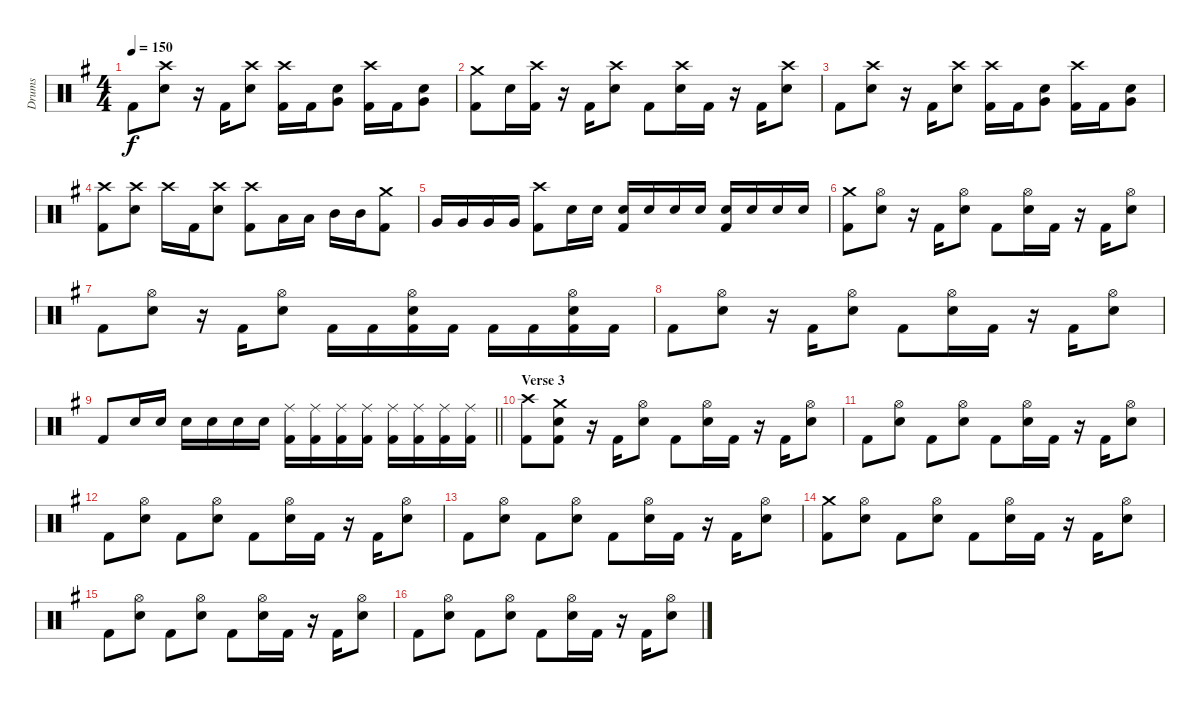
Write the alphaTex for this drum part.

\track ("Drums" "Drums") {instrument percussion}
\staff {score}
\articulation defaults
\ts (4 4)
\tempo 150
\clef neutral
\ks eminor "Kick (hit) 2".8{dy f}
("Crash high (hit)" "Electric Snare (hit)").8 r.16 "Kick (hit) 2".16 ("Crash high (hit)" "Electric Snare (hit)").8 ("Crash high (hit)" "Kick (hit) 2").16 "Kick (hit) 2".16 ("Electric Snare (hit)" "Very Low Tom (hit)").8 ("Crash high (hit)" "Kick (hit) 2").16 "Kick (hit) 2".16 ("Electric Snare (hit)" "Very Low Tom (hit)").8 |
("Crash medium (hit)" "Kick (hit) 2").8 "Electric Snare (hit)".16 ("Crash high (hit)" "Kick (hit) 2").16 r.16 "Kick (hit) 2".16 ("Crash high (hit)" "Electric Snare (hit)").8 "Kick (hit) 2".8 ("Crash high (hit)" "Electric Snare (hit)").16 "Kick (hit) 2".16 r.16 "Kick (hit) 2".16 ("Crash high (hit)" "Electric Snare (hit)").8 |
"Kick (hit) 2".8 ("Crash high (hit)" "Electric Snare (hit)").8 r.16 "Kick (hit) 2".16 ("Crash high (hit)" "Electric Snare (hit)").8 ("Crash high (hit)" "Kick (hit) 2").16 "Kick (hit) 2".16 ("Electric Snare (hit)" "Very Low Tom (hit)").8 ("Crash high (hit)" "Kick (hit) 2").16 "Kick (hit) 2".16 ("Electric Snare (hit)" "Very Low Tom (hit)").8 |
("Crash high (hit)" "Kick (hit) 2").8 ("Crash high (hit)" "Electric Snare (hit)").8 "Crash high (hit)".16 "Kick (hit) 2".16 ("Crash high (hit)" "Electric Snare (hit)").8 ("Crash high (hit)" "Kick (hit) 2").8 "Low Tom (hit)".16 "Low Tom (hit)".16 "Mid Tom (hit)".16 "Mid Tom (hit)".16 ("Crash medium (hit)" "Kick (hit) 2").8 |
"Very Low Tom (hit)".16 "Very Low Tom (hit)".16 "Very Low Tom (hit)".16 "Very Low Tom (hit)".16 ("Crash high (hit)" "Kick (hit) 2").8 "Electric Snare (hit)".16 "Electric Snare (hit)".16 ("Electric Snare (hit)" "Kick (hit) 2").16 "Electric Snare (hit)".16 "Electric Snare (hit)".16 "Electric Snare (hit)".16 ("Electric Snare (hit)" "Kick (hit) 2").16 "Electric Snare (hit)".16 "Electric Snare (hit)".16 "Electric Snare (hit)".16 |
("Crash medium (hit)" "Kick (hit) 2").8 ("Hi-Hat (open)" "Electric Snare (hit)").8 r.16 "Kick (hit) 2".16 ("Hi-Hat (open)" "Electric Snare (hit)").8 "Kick (hit) 2".8 ("Hi-Hat (open)" "Electric Snare (hit)").16 "Kick (hit) 2".16 r.16 "Kick (hit) 2".16 ("Hi-Hat (open)" "Electric Snare (hit)").8 |
"Kick (hit) 2".8 ("Hi-Hat (open)" "Electric Snare (hit)").8 r.16 "Kick (hit) 2".16 ("Hi-Hat (open)" "Electric Snare (hit)").8 "Kick (hit) 2".16 "Kick (hit) 2".16 ("Hi-Hat (open)" "Electric Snare (hit)" "Kick (hit) 2").16 "Kick (hit) 2".16 "Kick (hit) 2".16 "Kick (hit) 2".16 ("Hi-Hat (open)" "Electric Snare (hit)" "Kick (hit) 2").16 "Kick (hit) 2".16 |
"Kick (hit) 2".8 ("Hi-Hat (open)" "Electric Snare (hit)").8 r.16 "Kick (hit) 2".16 ("Hi-Hat (open)" "Electric Snare (hit)").8 "Kick (hit) 2".8 ("Hi-Hat (open)" "Electric Snare (hit)").16 "Kick (hit) 2".16 r.16 "Kick (hit) 2".16 ("Hi-Hat (open)" "Electric Snare (hit)").8 |
\barLineRight lightlight "Kick (hit) 2".8 "Electric Snare (hit)".16 "Electric Snare (hit)".16 "Electric Snare (hit)".16 "Electric Snare (hit)".16 "Electric Snare (hit)".16 "Electric Snare (hit)".16
("Ride (middle)" "Kick (hit) 2").16 ("Ride (middle)" "Kick (hit) 2").16 ("Ride (middle)" "Kick (hit) 2").16 ("Ride (middle)" "Kick (hit) 2").16 ("Ride (middle)" "Kick (hit) 2").16 ("Ride (middle)" "Kick (hit) 2").16 ("Ride (middle)" "Kick (hit) 2").16 ("Ride (middle)" "Kick (hit) 2").16 |
\section ("" "Verse 3")
("Crash high (hit)" "Kick (hit) 2").8 ("Crash medium (hit)" "Electric Snare (hit)" "Kick (hit) 2").8 r.16 "Kick (hit) 2".16 ("Hi-Hat (open)" "Electric Snare (hit)").8 "Kick (hit) 2".8 ("Hi-Hat (open)" "Electric Snare (hit)").16 "Kick (hit) 2".16 r.16 "Kick (hit) 2".16 ("Hi-Hat (open)" "Electric Snare (hit)").8 |
"Kick (hit) 2".8 ("Hi-Hat (open)" "Electric Snare (hit)").8 "Kick (hit) 2".8 ("Hi-Hat (open)" "Electric Snare (hit)").8 "Kick (hit) 2".8 ("Hi-Hat (open)" "Electric Snare (hit)").16 "Kick (hit) 2".16 r.16 "Kick (hit) 2".16 ("Hi-Hat (open)" "Electric Snare (hit)").8 |
"Kick (hit) 2".8 ("Hi-Hat (open)" "Electric Snare (hit)").8 "Kick (hit) 2".8 ("Hi-Hat (open)" "Electric Snare (hit)").8 "Kick (hit) 2".8 ("Hi-Hat (open)" "Electric Snare (hit)").16 "Kick (hit) 2".16 r.16 "Kick (hit) 2".16 ("Hi-Hat (open)" "Electric Snare (hit)").8 |
"Kick (hit) 2".8 ("Hi-Hat (open)" "Electric Snare (hit)").8 "Kick (hit) 2".8 ("Hi-Hat (open)" "Electric Snare (hit)").8 "Kick (hit) 2".8 ("Hi-Hat (open)" "Electric Snare (hit)").16 "Kick (hit) 2".16 r.16 "Kick (hit) 2".16 ("Hi-Hat (open)" "Electric Snare (hit)").8 |
("Crash medium (hit)" "Kick (hit) 2").8 ("Hi-Hat (open)" "Electric Snare (hit)").8 "Kick (hit) 2".8 ("Hi-Hat (open)" "Electric Snare (hit)").8 "Kick (hit) 2".8 ("Hi-Hat (open)" "Electric Snare (hit)").16 "Kick (hit) 2".16 r.16 "Kick (hit) 2".16 ("Hi-Hat (open)" "Electric Snare (hit)").8 |
"Kick (hit) 2".8 ("Hi-Hat (open)" "Electric Snare (hit)").8 "Kick (hit) 2".8 ("Hi-Hat (open)" "Electric Snare (hit)").8 "Kick (hit) 2".8 ("Hi-Hat (open)" "Electric Snare (hit)").16 "Kick (hit) 2".16 r.16 "Kick (hit) 2".16 ("Hi-Hat (open)" "Electric Snare (hit)").8 |
"Kick (hit) 2".8 ("Hi-Hat (open)" "Electric Snare (hit)").8 "Kick (hit) 2".8 ("Hi-Hat (open)" "Electric Snare (hit)").8 "Kick (hit) 2".8 ("Hi-Hat (open)" "Electric Snare (hit)").16 "Kick (hit) 2".16 r.16 "Kick (hit) 2".16 ("Hi-Hat (open)" "Electric Snare (hit)").8
